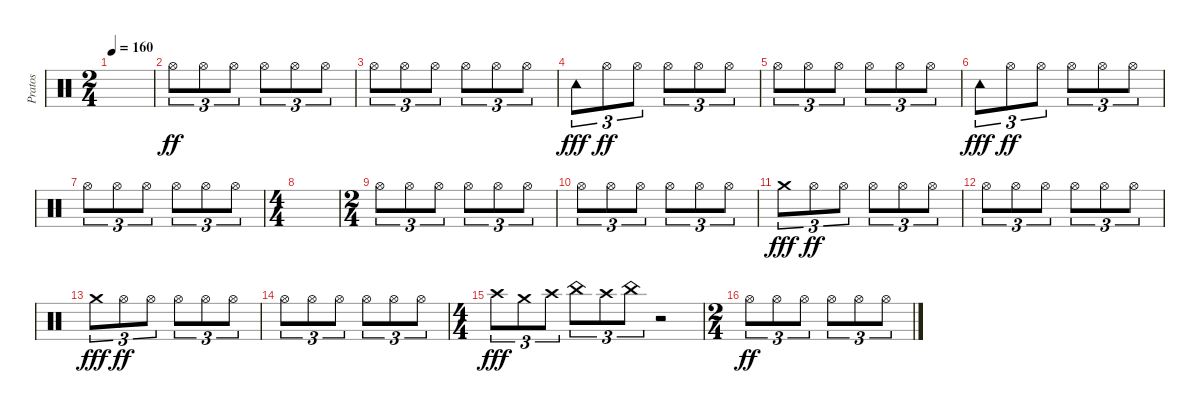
\track ("Pratos" "Pratos") {instrument percussion}
\staff {score}
\articulation defaults
\ts (2 4)
\tempo 160
\clef neutral
\ks c
|
"Hi-Hat (open)".8{tu (3 2) dy ff} "Hi-Hat (open)".8{tu (3 2)} "Hi-Hat (open)".8{tu (3 2)} "Hi-Hat (open)".8{tu (3 2)} "Hi-Hat (open)".8{tu (3 2)} "Hi-Hat (open)".8{tu (3 2)} |
"Hi-Hat (open)".8{tu (3 2)} "Hi-Hat (open)".8{tu (3 2)} "Hi-Hat (open)".8{tu (3 2)} "Hi-Hat (open)".8{tu (3 2)} "Hi-Hat (open)".8{tu (3 2)} "Hi-Hat (open)".8{tu (3 2)} |
"Tambourine (hit)".8{tu (3 2) dy fff} "Hi-Hat (open)".8{tu (3 2) dy ff} "Hi-Hat (open)".8{tu (3 2)} "Hi-Hat (open)".8{tu (3 2)} "Hi-Hat (open)".8{tu (3 2)} "Hi-Hat (open)".8{tu (3 2)} |
"Hi-Hat (open)".8{tu (3 2)} "Hi-Hat (open)".8{tu (3 2)} "Hi-Hat (open)".8{tu (3 2)} "Hi-Hat (open)".8{tu (3 2)} "Hi-Hat (open)".8{tu (3 2)} "Hi-Hat (open)".8{tu (3 2)} |
"Tambourine (hit)".8{tu (3 2) dy fff} "Hi-Hat (open)".8{tu (3 2) dy ff} "Hi-Hat (open)".8{tu (3 2)} "Hi-Hat (open)".8{tu (3 2)} "Hi-Hat (open)".8{tu (3 2)} "Hi-Hat (open)".8{tu (3 2)} |
"Hi-Hat (open)".8{tu (3 2)} "Hi-Hat (open)".8{tu (3 2)} "Hi-Hat (open)".8{tu (3 2)} "Hi-Hat (open)".8{tu (3 2)} "Hi-Hat (open)".8{tu (3 2)} "Hi-Hat (open)".8{tu (3 2)} |
\ts (4 4)
|
\ts (2 4)
"Hi-Hat (open)".8{tu (3 2)} "Hi-Hat (open)".8{tu (3 2)} "Hi-Hat (open)".8{tu (3 2)} "Hi-Hat (open)".8{tu (3 2)} "Hi-Hat (open)".8{tu (3 2)} "Hi-Hat (open)".8{tu (3 2)} |
"Hi-Hat (open)".8{tu (3 2)} "Hi-Hat (open)".8{tu (3 2)} "Hi-Hat (open)".8{tu (3 2)} "Hi-Hat (open)".8{tu (3 2)} "Hi-Hat (open)".8{tu (3 2)} "Hi-Hat (open)".8{tu (3 2)} |
"Crash medium (hit)".8{tu (3 2) dy fff} "Hi-Hat (open)".8{tu (3 2) dy ff} "Hi-Hat (open)".8{tu (3 2)} "Hi-Hat (open)".8{tu (3 2)} "Hi-Hat (open)".8{tu (3 2)} "Hi-Hat (open)".8{tu (3 2)} |
"Hi-Hat (open)".8{tu (3 2)} "Hi-Hat (open)".8{tu (3 2)} "Hi-Hat (open)".8{tu (3 2)} "Hi-Hat (open)".8{tu (3 2)} "Hi-Hat (open)".8{tu (3 2)} "Hi-Hat (open)".8{tu (3 2)} |
"Crash medium (hit)".8{tu (3 2) dy fff} "Hi-Hat (open)".8{tu (3 2) dy ff} "Hi-Hat (open)".8{tu (3 2)} "Hi-Hat (open)".8{tu (3 2)} "Hi-Hat (open)".8{tu (3 2)} "Hi-Hat (open)".8{tu (3 2)} |
"Hi-Hat (open)".8{tu (3 2)} "Hi-Hat (open)".8{tu (3 2)} "Hi-Hat (open)".8{tu (3 2)} "Hi-Hat (open)".8{tu (3 2)} "Hi-Hat (open)".8{tu (3 2)} "Hi-Hat (open)".8{tu (3 2)} |
\ts (4 4)
"Crash high (hit)".8{tu (3 2) dy fff} "Crash medium (hit)".8{tu (3 2)} "Crash high (hit)".8{tu (3 2)} "China (hit)".8{tu (3 2)} "Crash high (hit)".8{tu (3 2)} "China (hit)".8{tu (3 2)} r.2 |
\ts (2 4)
"Hi-Hat (open)".8{tu (3 2) dy ff} "Hi-Hat (open)".8{tu (3 2)} "Hi-Hat (open)".8{tu (3 2)} "Hi-Hat (open)".8{tu (3 2)} "Hi-Hat (open)".8{tu (3 2)} "Hi-Hat (open)".8{tu (3 2)}
